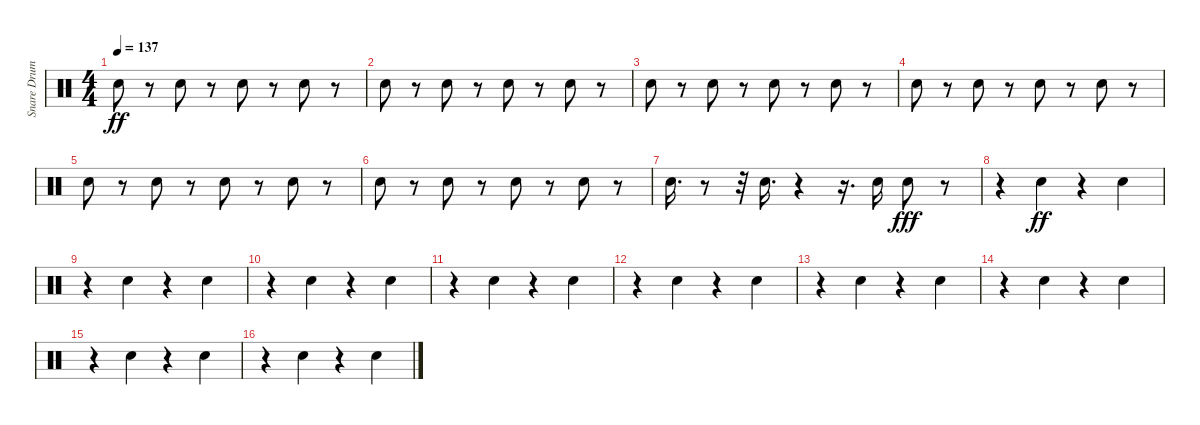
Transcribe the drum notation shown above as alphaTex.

\track ("Snare Drum" "Snare Drum") {instrument percussion}
\staff {score}
\articulation defaults
\ts (4 4)
\tempo 137
\clef neutral
\ks c "Snare (hit) 2".8{dy ff}
r.8 "Snare (hit) 2".8 r.8 "Snare (hit) 2".8 r.8 "Snare (hit) 2".8 r.8 |
"Snare (hit) 2".8 r.8 "Snare (hit) 2".8 r.8 "Snare (hit) 2".8 r.8 "Snare (hit) 2".8 r.8 |
"Snare (hit) 2".8 r.8 "Snare (hit) 2".8 r.8 "Snare (hit) 2".8 r.8 "Snare (hit) 2".8 r.8 |
"Snare (hit) 2".8 r.8 "Snare (hit) 2".8 r.8 "Snare (hit) 2".8 r.8 "Snare (hit) 2".8 r.8 |
"Snare (hit) 2".8 r.8 "Snare (hit) 2".8 r.8 "Snare (hit) 2".8 r.8 "Snare (hit) 2".8 r.8 |
"Snare (hit) 2".8 r.8 "Snare (hit) 2".8 r.8 "Snare (hit) 2".8 r.8 "Snare (hit) 2".8 r.8 |
"Snare (hit) 2".16{d} r.8 r.32 "Snare (hit) 2".16{d} r.4 r.16{d} "Snare (hit) 2".16 "Snare (hit) 2".8{dy fff} r.8 |
r.4 "Snare (hit) 2".4{dy ff} r.4 "Snare (hit) 2".4 |
r.4 "Snare (hit) 2".4 r.4 "Snare (hit) 2".4 |
r.4 "Snare (hit) 2".4 r.4 "Snare (hit) 2".4 |
r.4 "Snare (hit) 2".4 r.4 "Snare (hit) 2".4 |
r.4 "Snare (hit) 2".4 r.4 "Snare (hit) 2".4 |
r.4 "Snare (hit) 2".4 r.4 "Snare (hit) 2".4 |
r.4 "Snare (hit) 2".4 r.4 "Snare (hit) 2".4 |
r.4 "Snare (hit) 2".4 r.4 "Snare (hit) 2".4 |
r.4 "Snare (hit) 2".4 r.4 "Snare (hit) 2".4
